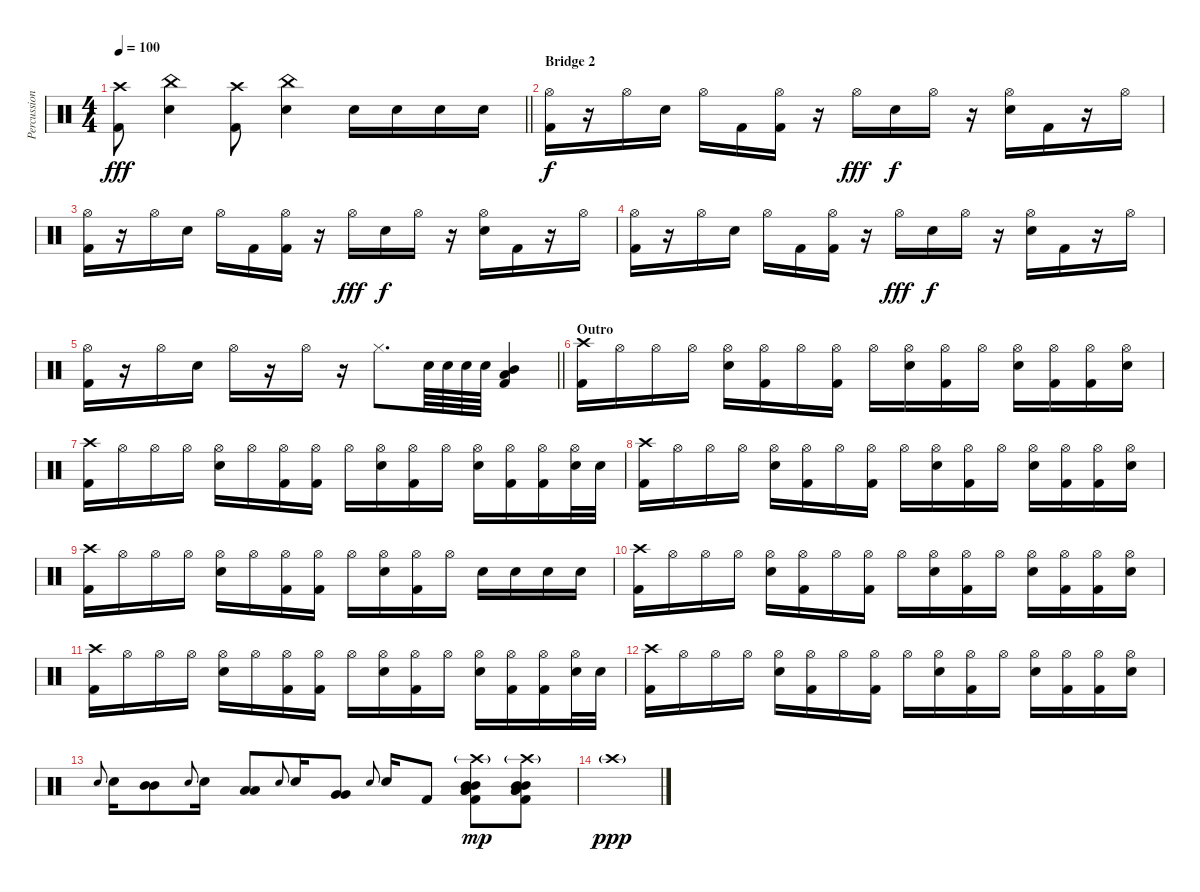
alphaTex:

\track ("Percussioni" "Percussion") {instrument percussion}
\staff {score}
\articulation defaults
\ts (4 4)
\tempo 100
\clef neutral
\barLineRight lightlight
\ks c
("Crash high (hit)" "Kick (hit) 2").8{dy fff} ("China (hit)" "Snare (hit) 2").4 ("Crash high (hit)" "Kick (hit) 2").8 ("China (hit)" "Snare (hit) 2").4 "Snare (hit) 2".16 "Snare (hit) 2".16 "Snare (hit) 2".16 "Snare (hit) 2".16 |
\section ("" "Bridge 2")
("Hi-Hat (open)" "Kick (hit) 2").16{dy f} r.16 "Hi-Hat (open)".16 "Snare (hit) 2".16 "Hi-Hat (open)".16 "Kick (hit) 2".16 ("Hi-Hat (open)" "Kick (hit) 2").16 r.16 "Hi-Hat (open)".16{dy fff} "Snare (hit) 2".16{dy f} "Hi-Hat (open)".16 r.16 ("Hi-Hat (open)" "Snare (hit) 2").16 "Kick (hit) 2".16 r.16 "Hi-Hat (open)".16 |
("Hi-Hat (open)" "Kick (hit) 2").16 r.16 "Hi-Hat (open)".16 "Snare (hit) 2".16 "Hi-Hat (open)".16 "Kick (hit) 2".16 ("Hi-Hat (open)" "Kick (hit) 2").16 r.16 "Hi-Hat (open)".16{dy fff} "Snare (hit) 2".16{dy f} "Hi-Hat (open)".16 r.16 ("Hi-Hat (open)" "Snare (hit) 2").16 "Kick (hit) 2".16 r.16 "Hi-Hat (open)".16 |
("Hi-Hat (open)" "Kick (hit) 2").16 r.16 "Hi-Hat (open)".16 "Snare (hit) 2".16 "Hi-Hat (open)".16 "Kick (hit) 2".16 ("Hi-Hat (open)" "Kick (hit) 2").16 r.16 "Hi-Hat (open)".16{dy fff} "Snare (hit) 2".16{dy f} "Hi-Hat (open)".16 r.16 ("Hi-Hat (open)" "Snare (hit) 2").16 "Kick (hit) 2".16 r.16 "Hi-Hat (open)".16 |
\barLineRight lightlight
("Hi-Hat (open)" "Kick (hit) 2").16 r.16 "Hi-Hat (open)".16 "Snare (hit) 2".16 "Hi-Hat (open)".16 r.16 "Hi-Hat (open)".16 r.16 "Hi-Hat (closed)".8{d} "Snare (hit) 2".64 "Snare (hit) 2".64 "Snare (hit) 2".64 "Snare (hit) 2".64 ("Low Tom (hit)" "Mid Tom (hit)" "Kick (hit) 2").4 |
\section ("" "Outro")
("Crash high (hit)" "Kick (hit) 2").16 "Hi-Hat (open)".16 "Hi-Hat (open)".16 "Hi-Hat (open)".16 ("Hi-Hat (open)" "Snare (hit) 2").16 ("Hi-Hat (open)" "Kick (hit) 2").16 "Hi-Hat (open)".16 ("Hi-Hat (open)" "Kick (hit) 2").16 "Hi-Hat (open)".16 ("Hi-Hat (open)" "Snare (hit) 2").16 ("Hi-Hat (open)" "Kick (hit) 2").16 "Hi-Hat (open)".16 ("Hi-Hat (open)" "Snare (hit) 2").16 ("Hi-Hat (open)" "Kick (hit) 2").16 ("Hi-Hat (open)" "Kick (hit) 2").16 ("Hi-Hat (open)" "Snare (hit) 2").16 |
("Crash high (hit)" "Kick (hit) 2").16 "Hi-Hat (open)".16 "Hi-Hat (open)".16 "Hi-Hat (open)".16 ("Hi-Hat (open)" "Snare (hit) 2").16 "Hi-Hat (open)".16 ("Hi-Hat (open)" "Kick (hit) 2").16 ("Hi-Hat (open)" "Kick (hit) 2").16 "Hi-Hat (open)".16 ("Hi-Hat (open)" "Snare (hit) 2").16 ("Hi-Hat (open)" "Kick (hit) 2").16 "Hi-Hat (open)".16 ("Hi-Hat (open)" "Snare (hit) 2").16 ("Hi-Hat (open)" "Kick (hit) 2").16 ("Hi-Hat (open)" "Kick (hit) 2").16 ("Hi-Hat (open)" "Snare (hit) 2").32 "Snare (hit) 2".32 |
("Crash high (hit)" "Kick (hit) 2").16 "Hi-Hat (open)".16 "Hi-Hat (open)".16 "Hi-Hat (open)".16 ("Hi-Hat (open)" "Snare (hit) 2").16 ("Hi-Hat (open)" "Kick (hit) 2").16 "Hi-Hat (open)".16 ("Hi-Hat (open)" "Kick (hit) 2").16 "Hi-Hat (open)".16 ("Hi-Hat (open)" "Snare (hit) 2").16 ("Hi-Hat (open)" "Kick (hit) 2").16 "Hi-Hat (open)".16 ("Hi-Hat (open)" "Snare (hit) 2").16 ("Hi-Hat (open)" "Kick (hit) 2").16 ("Hi-Hat (open)" "Kick (hit) 2").16 ("Hi-Hat (open)" "Snare (hit) 2").16 |
("Crash high (hit)" "Kick (hit) 2").16 "Hi-Hat (open)".16 "Hi-Hat (open)".16 "Hi-Hat (open)".16 ("Hi-Hat (open)" "Snare (hit) 2").16 "Hi-Hat (open)".16 ("Hi-Hat (open)" "Kick (hit) 2").16 ("Hi-Hat (open)" "Kick (hit) 2").16 "Hi-Hat (open)".16 ("Hi-Hat (open)" "Snare (hit) 2").16 ("Hi-Hat (open)" "Kick (hit) 2").16 "Hi-Hat (open)".16 "Snare (hit) 2".16 "Snare (hit) 2".16 "Snare (hit) 2".16 "Snare (hit) 2".16 |
("Crash high (hit)" "Kick (hit) 2").16 "Hi-Hat (open)".16 "Hi-Hat (open)".16 "Hi-Hat (open)".16 ("Hi-Hat (open)" "Snare (hit) 2").16 ("Hi-Hat (open)" "Kick (hit) 2").16 "Hi-Hat (open)".16 ("Hi-Hat (open)" "Kick (hit) 2").16 "Hi-Hat (open)".16 ("Hi-Hat (open)" "Snare (hit) 2").16 ("Hi-Hat (open)" "Kick (hit) 2").16 "Hi-Hat (open)".16 ("Hi-Hat (open)" "Snare (hit) 2").16 ("Hi-Hat (open)" "Kick (hit) 2").16 ("Hi-Hat (open)" "Kick (hit) 2").16 ("Hi-Hat (open)" "Snare (hit) 2").16 |
("Crash high (hit)" "Kick (hit) 2").16 "Hi-Hat (open)".16 "Hi-Hat (open)".16 "Hi-Hat (open)".16 ("Hi-Hat (open)" "Snare (hit) 2").16 "Hi-Hat (open)".16 ("Hi-Hat (open)" "Kick (hit) 2").16 ("Hi-Hat (open)" "Kick (hit) 2").16 "Hi-Hat (open)".16 ("Hi-Hat (open)" "Snare (hit) 2").16 ("Hi-Hat (open)" "Kick (hit) 2").16 "Hi-Hat (open)".16 ("Hi-Hat (open)" "Snare (hit) 2").16 ("Hi-Hat (open)" "Kick (hit) 2").16 ("Hi-Hat (open)" "Kick (hit) 2").16 ("Hi-Hat (open)" "Snare (hit) 2").32 "Snare (hit) 2".32 |
("Crash high (hit)" "Kick (hit) 2").16 "Hi-Hat (open)".16 "Hi-Hat (open)".16 "Hi-Hat (open)".16 ("Hi-Hat (open)" "Snare (hit) 2").16 ("Hi-Hat (open)" "Kick (hit) 2").16 "Hi-Hat (open)".16 ("Hi-Hat (open)" "Kick (hit) 2").16 "Hi-Hat (open)".16 ("Hi-Hat (open)" "Snare (hit) 2").16 ("Hi-Hat (open)" "Kick (hit) 2").16 "Hi-Hat (open)".16 ("Hi-Hat (open)" "Snare (hit) 2").16 ("Hi-Hat (open)" "Kick (hit) 2").16 ("Hi-Hat (open)" "Kick (hit) 2").16 ("Hi-Hat (open)" "Snare (hit) 2").16 |
"Snare (hit) 2".8{gr onbeat} "Snare (hit) 2".16 ("Mid Tom (hit)" "Mid Tom (hit)").8 "Snare (hit) 2".8{gr onbeat} "Snare (hit) 2".16 ("Low Tom (hit)" "Low Tom (hit)").8 "Snare (hit) 2".8{gr onbeat} "Snare (hit) 2".16 ("Very Low Tom (hit)" "Very Low Tom (hit)").8 "Snare (hit) 2".8{gr onbeat} "Snare (hit) 2".16 "Kick (hit) 2".8 ("Low Tom (hit)" "Mid Tom (hit)" "Mid Tom (hit)" "Low Tom (hit)" "Crash high (hit)"{g} "Kick (hit) 2").8{dy mp} ("Low Tom (hit)" "Mid Tom (hit)" "Mid Tom (hit)" "Low Tom (hit)" "Crash high (hit)"{g} "Kick (hit) 2").8 |
"Crash high (hit)"{g}.1{dy ppp}
